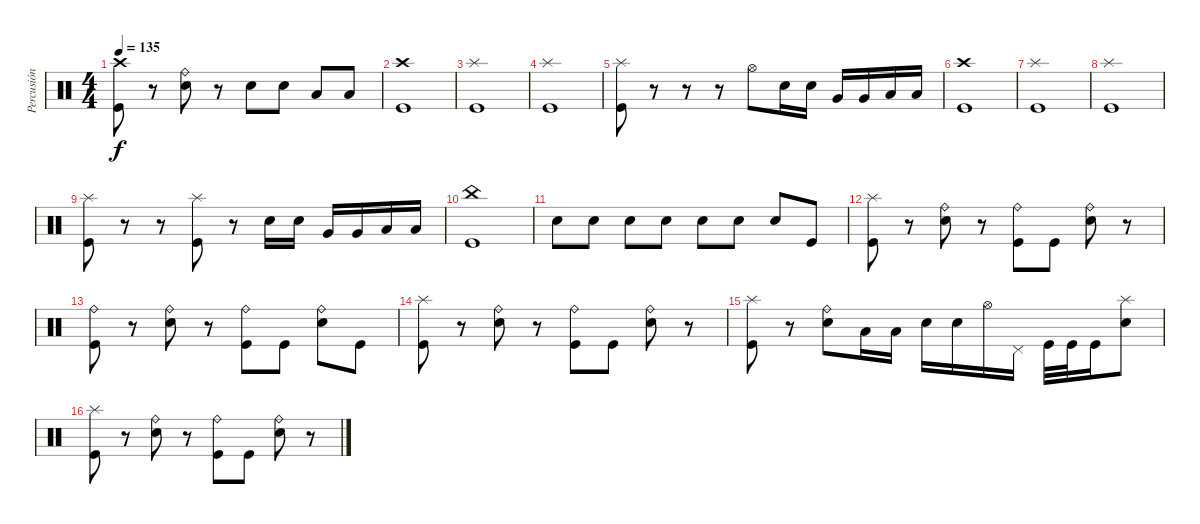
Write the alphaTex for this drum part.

\track ("Percusión" "Percusión") {instrument percussion}
\staff {score}
\articulation defaults
\ts (4 4)
\tempo 135
\clef neutral
\ks c
("Kick (hit)" "Crash high (hit)").8{dy f} r.8 ("Electric Snare (hit)" "Ride (bell)").8 r.8 "Electric Snare (hit)".8 "Electric Snare (hit)".8 "Low Tom (hit)".8 "Low Tom (hit)".8 |
("Kick (hit)" "Crash high (hit)").1 |
("Kick (hit)" "Splash (hit)").1 |
("Kick (hit)" "Splash (hit)").1 |
("Kick (hit)" "Splash (hit)").8 r.8 r.8 r.8 "Hi-Hat (open)".8 "Electric Snare (hit)".16 "Electric Snare (hit)".16 "Very Low Tom (hit)".16 "Very Low Tom (hit)".16 "Low Tom (hit)".16 "Low Tom (hit)".16 |
("Kick (hit)" "Crash high (hit)").1 |
("Kick (hit)" "Splash (hit)").1 |
("Kick (hit)" "Splash (hit)").1 |
("Kick (hit)" "Splash (hit)").8 r.8 r.8 ("Kick (hit)" "Splash (hit)").8 r.8 "Electric Snare (hit)".16 "Electric Snare (hit)".16 "Very Low Tom (hit)".16 "Very Low Tom (hit)".16 "Low Tom (hit)".16 "Low Tom (hit)".16 |
("Kick (hit)" "China (hit)").1 |
"Electric Snare (hit)".8 "Electric Snare (hit)".8 "Electric Snare (hit)".8 "Electric Snare (hit)".8 "Electric Snare (hit)".8 "Electric Snare (hit)".8 "Electric Snare (hit)".8 "Kick (hit)".8 |
("Kick (hit)" "Splash (hit)").8 r.8 ("Electric Snare (hit)" "Ride (bell)").8 r.8 ("Kick (hit)" "Ride (bell)").8 "Kick (hit)".8 ("Electric Snare (hit)" "Ride (bell)").8 r.8 |
("Kick (hit)" "Ride (bell)").8 r.8 ("Electric Snare (hit)" "Ride (bell)").8 r.8 ("Kick (hit)" "Ride (bell)").8 "Kick (hit)".8 ("Electric Snare (hit)" "Ride (bell)").8 "Kick (hit)".8 |
("Kick (hit)" "Splash (hit)").8 r.8 ("Electric Snare (hit)" "Ride (bell)").8 r.8 ("Kick (hit)" "Ride (bell)").8 "Kick (hit)".8 ("Electric Snare (hit)" "Ride (bell)").8 r.8 |
("Kick (hit)" "Splash (hit)").8 r.8 ("Electric Snare (hit)" "Ride (bell)").8 "Low Tom (hit)".16 "Low Tom (hit)".16 "Electric Snare (hit)".16 "Electric Snare (hit)".16 "Hi-Hat (open)".16 "Pedal Hi-Hat (hit)".16 "Kick (hit)".32 "Kick (hit)".32 "Kick (hit)".16 ("Electric Snare (hit)" "Splash (hit)").8 |
("Kick (hit)" "Splash (hit)").8 r.8 ("Electric Snare (hit)" "Ride (bell)").8 r.8 ("Kick (hit)" "Ride (bell)").8 "Kick (hit)".8 ("Electric Snare (hit)" "Ride (bell)").8 r.8
